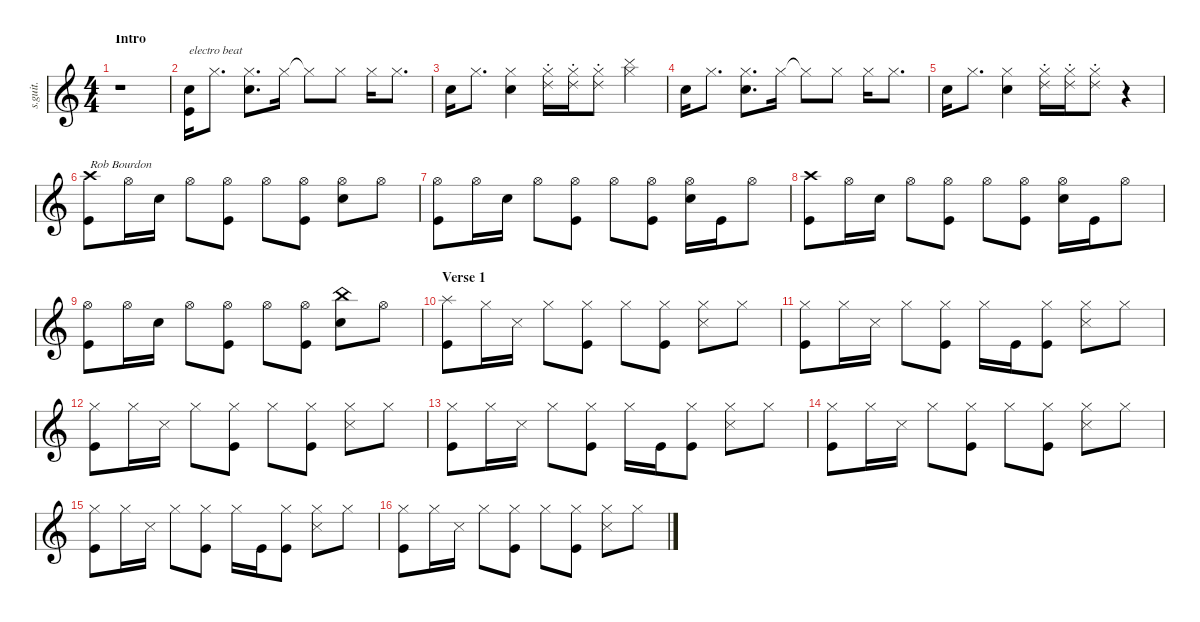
\defaultSystemsLayout 4
\hideDynamics
\bracketExtendMode nobrackets
\track ("Rob Bourdon" "s.guit.") {instrument percussion}
\staff {score}
\articulation defaults
\ts (4 4)
\beaming (8 2 2 2 2)
\section ("" "Intro")
\tempo (110 hide)
\clef g2
\ks c
r.1{dy f} |
("Snare (hit) 2" "Kick (hit)").16{txt "electro beat"} "Hi-Hat (closed)".8{d} ("Hi-Hat (closed)" "Snare (hit) 2").8{d} "Hi-Hat (closed)".16 "Hi-Hat (closed)"{t}.8 "Hi-Hat (closed)".8 "Hi-Hat (closed)".16 "Hi-Hat (closed)".8{d} |
"Snare (hit) 2".16 "Hi-Hat (closed)".8{d} ("Hi-Hat (closed)" "Snare (hit) 2").4 ("Hi-Hat (closed)" "Ride (choke) 2").16 ("Hi-Hat (closed)" "Ride (choke) 2").16 ("Hi-Hat (closed)" "Ride (choke) 2").8 ("Hi-Hat (closed)" "Cymbal (hit)").4 |
"Snare (hit) 2".16 "Hi-Hat (closed)".8{d} ("Hi-Hat (closed)" "Snare (hit) 2").8{d} "Hi-Hat (closed)".16 "Hi-Hat (closed)"{t}.8 "Hi-Hat (closed)".8 "Hi-Hat (closed)".16 "Hi-Hat (closed)".8{d} |
"Snare (hit) 2".16 "Hi-Hat (closed)".8{d} ("Hi-Hat (closed)" "Snare (hit) 2").4 ("Hi-Hat (closed)" "Ride (choke) 2").16 ("Hi-Hat (closed)" "Ride (choke) 2").16 ("Hi-Hat (closed)" "Ride (choke) 2").8 r.4 |
("Crash high (hit)" "Kick (hit)").8{txt "Rob Bourdon"} "Hi-Hat (open)".16 "Snare (hit) 2".16 "Hi-Hat (open)".8 ("Hi-Hat (open)" "Kick (hit)").8 "Hi-Hat (open)".8 ("Hi-Hat (open)" "Kick (hit)").8 ("Hi-Hat (open)" "Snare (hit) 2").8 "Hi-Hat (open)".8 |
("Hi-Hat (open)" "Kick (hit)").8 "Hi-Hat (open)".16 "Snare (hit) 2".16 "Hi-Hat (open)".8 ("Hi-Hat (open)" "Kick (hit)").8 "Hi-Hat (open)".8 ("Hi-Hat (open)" "Kick (hit)").8 ("Hi-Hat (open)" "Snare (hit) 2").16 "Kick (hit)".16 "Hi-Hat (open)".8 |
("Crash high (hit)" "Kick (hit)").8 "Hi-Hat (open)".16 "Snare (hit) 2".16 "Hi-Hat (open)".8 ("Hi-Hat (open)" "Kick (hit)").8 "Hi-Hat (open)".8 ("Hi-Hat (open)" "Kick (hit)").8 ("Hi-Hat (open)" "Snare (hit) 2").16 "Kick (hit)".16 "Hi-Hat (open)".8 |
("Hi-Hat (open)" "Kick (hit)").8 "Hi-Hat (open)".16 "Snare (hit) 2".16 "Hi-Hat (open)".8 ("Hi-Hat (open)" "Kick (hit)").8 "Hi-Hat (open)".8 ("Hi-Hat (open)" "Kick (hit)").8 ("China (hit)" "Snare (hit) 2").8 "Hi-Hat (open)".8 |
\section ("" "Verse 1")
("Splash (hit)" "Kick (hit)").8 "Hi-Hat (closed)".16 "Snare (side stick) 3".16 "Hi-Hat (closed)".8 ("Hi-Hat (closed)" "Kick (hit)").8 "Hi-Hat (closed)".8 ("Hi-Hat (closed)" "Kick (hit)").8 ("Hi-Hat (closed)" "Snare (side stick) 3").8 "Hi-Hat (closed)".8 |
("Hi-Hat (closed)" "Kick (hit)").8 "Hi-Hat (closed)".16 "Snare (side stick) 3".16 "Hi-Hat (closed)".8 ("Hi-Hat (closed)" "Kick (hit)").8 "Hi-Hat (closed)".16 "Kick (hit)".16 ("Hi-Hat (closed)" "Kick (hit)").8 ("Hi-Hat (closed)" "Snare (side stick) 3").8 "Hi-Hat (closed)".8 |
("Hi-Hat (closed)" "Kick (hit)").8 "Hi-Hat (closed)".16 "Snare (side stick) 3".16 "Hi-Hat (closed)".8 ("Hi-Hat (closed)" "Kick (hit)").8 "Hi-Hat (closed)".8 ("Hi-Hat (closed)" "Kick (hit)").8 ("Hi-Hat (closed)" "Snare (side stick) 3").8 "Hi-Hat (closed)".8 |
("Hi-Hat (closed)" "Kick (hit)").8 "Hi-Hat (closed)".16 "Snare (side stick) 3".16 "Hi-Hat (closed)".8 ("Hi-Hat (closed)" "Kick (hit)").8 "Hi-Hat (closed)".16 "Kick (hit)".16 ("Hi-Hat (closed)" "Kick (hit)").8 ("Hi-Hat (closed)" "Snare (side stick) 3").8 "Hi-Hat (closed)".8 |
("Hi-Hat (closed)" "Kick (hit)").8 "Hi-Hat (closed)".16 "Snare (side stick) 3".16 "Hi-Hat (closed)".8 ("Hi-Hat (closed)" "Kick (hit)").8 "Hi-Hat (closed)".8 ("Hi-Hat (closed)" "Kick (hit)").8 ("Hi-Hat (closed)" "Snare (side stick) 3").8 "Hi-Hat (closed)".8 |
("Hi-Hat (closed)" "Kick (hit)").8 "Hi-Hat (closed)".16 "Snare (side stick) 3".16 "Hi-Hat (closed)".8 ("Hi-Hat (closed)" "Kick (hit)").8 "Hi-Hat (closed)".16 "Kick (hit)".16 ("Hi-Hat (closed)" "Kick (hit)").8 ("Hi-Hat (closed)" "Snare (side stick) 3").8 "Hi-Hat (closed)".8 |
("Hi-Hat (closed)" "Kick (hit)").8 "Hi-Hat (closed)".16 "Snare (side stick) 3".16 "Hi-Hat (closed)".8 ("Hi-Hat (closed)" "Kick (hit)").8 "Hi-Hat (closed)".8 ("Hi-Hat (closed)" "Kick (hit)").8 ("Hi-Hat (closed)" "Snare (side stick) 3").8 "Hi-Hat (closed)".8
